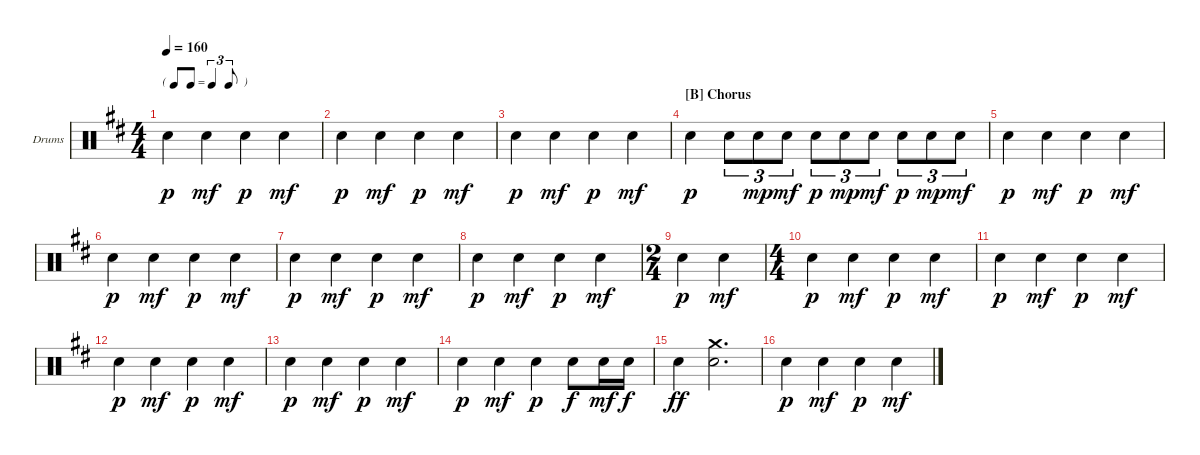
\defaultSystemsLayout 4
\bracketExtendMode groupsimilarinstruments
\firstSystemTrackNameOrientation horizontal
\otherSystemsTrackNameOrientation horizontal
\track ("Hal Blaine" "Drums") {instrument percussion}
\staff {score}
\articulation defaults
\ts (4 4)
\tf triplet8th
\tempo 160
\clef neutral
\ks bminor "Snare (hit) 2".4{dy p} "Snare (hit) 2".4{dy mf} "Snare (hit) 2".4{dy p} "Snare (hit) 2".4{dy mf}
|
"Snare (hit) 2".4{dy p} "Snare (hit) 2".4{dy mf} "Snare (hit) 2".4{dy p} "Snare (hit) 2".4{dy mf} |
"Snare (hit) 2".4{dy p} "Snare (hit) 2".4{dy mf} "Snare (hit) 2".4{dy p} "Snare (hit) 2".4{dy mf} |
\section ("B" "Chorus")
"Snare (hit) 2".4{dy p} "Snare (hit) 2".8{tu (3 2)} "Snare (hit) 2".8{tu (3 2) dy mp} "Snare (hit) 2".8{tu (3 2) dy mf} "Snare (hit) 2".8{tu (3 2) dy p} "Snare (hit) 2".8{tu (3 2) dy mp} "Snare (hit) 2".8{tu (3 2) dy mf} "Snare (hit) 2".8{tu (3 2) dy p} "Snare (hit) 2".8{tu (3 2) dy mp} "Snare (hit) 2".8{tu (3 2) dy mf} |
"Snare (hit) 2".4{dy p} "Snare (hit) 2".4{dy mf} "Snare (hit) 2".4{dy p} "Snare (hit) 2".4{dy mf} |
"Snare (hit) 2".4{dy p} "Snare (hit) 2".4{dy mf} "Snare (hit) 2".4{dy p} "Snare (hit) 2".4{dy mf} |
"Snare (hit) 2".4{dy p} "Snare (hit) 2".4{dy mf} "Snare (hit) 2".4{dy p} "Snare (hit) 2".4{dy mf} |
"Snare (hit) 2".4{dy p} "Snare (hit) 2".4{dy mf} "Snare (hit) 2".4{dy p} "Snare (hit) 2".4{dy mf} |
\ts (2 4)
"Snare (hit) 2".4{dy p} "Snare (hit) 2".4{dy mf} |
\ts (4 4)
"Snare (hit) 2".4{dy p} "Snare (hit) 2".4{dy mf} "Snare (hit) 2".4{dy p} "Snare (hit) 2".4{dy mf} |
"Snare (hit) 2".4{dy p} "Snare (hit) 2".4{dy mf} "Snare (hit) 2".4{dy p} "Snare (hit) 2".4{dy mf} |
"Snare (hit) 2".4{dy p} "Snare (hit) 2".4{dy mf} "Snare (hit) 2".4{dy p} "Snare (hit) 2".4{dy mf} |
"Snare (hit) 2".4{dy p} "Snare (hit) 2".4{dy mf} "Snare (hit) 2".4{dy p} "Snare (hit) 2".4{dy mf} |
"Snare (hit) 2".4{dy p} "Snare (hit) 2".4{dy mf} "Snare (hit) 2".4{dy p} "Snare (hit) 2".8{dy f} "Snare (hit) 2".16{dy mf} "Snare (hit) 2".16{dy f} |
"Snare (hit) 2".4{dy ff} ("Snare (hit) 2" "Crash medium (hit)").2{d} |
"Snare (hit) 2".4{dy p} "Snare (hit) 2".4{dy mf} "Snare (hit) 2".4{dy p} "Snare (hit) 2".4{dy mf}
